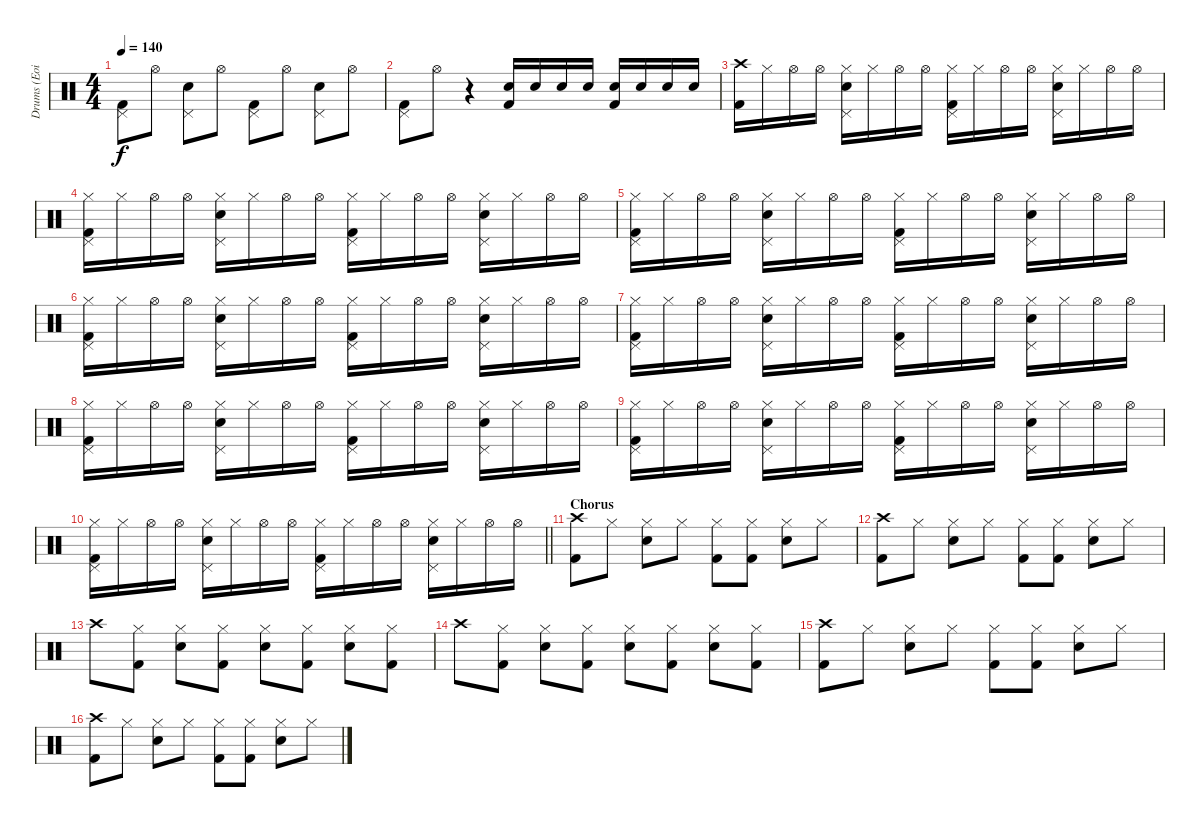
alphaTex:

\track ("Drums (Eoin)" "Drums (Eoi") {instrument percussion}
\staff {score}
\articulation defaults
\ts (4 4)
\tempo 140
\clef neutral
\ks c
("Pedal Hi-Hat (hit)" "Kick (hit) 2").8{dy f} "Hi-Hat (open)".8 ("Pedal Hi-Hat (hit)" "Electric Snare (hit)").8 "Hi-Hat (open)".8 ("Pedal Hi-Hat (hit)" "Kick (hit) 2").8 "Hi-Hat (open)".8 ("Pedal Hi-Hat (hit)" "Electric Snare (hit)").8 "Hi-Hat (open)".8 |
("Pedal Hi-Hat (hit)" "Kick (hit) 2").8 "Hi-Hat (open)".8 r.4 ("Electric Snare (hit)" "Kick (hit) 2").16 "Electric Snare (hit)".16 "Electric Snare (hit)".16 "Electric Snare (hit)".16 ("Electric Snare (hit)" "Kick (hit) 2").16 "Electric Snare (hit)".16 "Electric Snare (hit)".16 "Electric Snare (hit)".16 |
("Crash high (hit)" "Kick (hit) 2").16 "Hi-Hat (closed)".16 "Hi-Hat (open)".16 "Hi-Hat (open)".16 ("Hi-Hat (closed)" "Pedal Hi-Hat (hit)" "Electric Snare (hit)").16 "Hi-Hat (closed)".16 "Hi-Hat (open)".16 "Hi-Hat (open)".16 ("Hi-Hat (closed)" "Pedal Hi-Hat (hit)" "Kick (hit) 2").16 "Hi-Hat (closed)".16 "Hi-Hat (open)".16 "Hi-Hat (open)".16 ("Hi-Hat (closed)" "Pedal Hi-Hat (hit)" "Electric Snare (hit)").16 "Hi-Hat (closed)".16 "Hi-Hat (open)".16 "Hi-Hat (open)".16 |
("Hi-Hat (closed)" "Pedal Hi-Hat (hit)" "Kick (hit) 2").16 "Hi-Hat (closed)".16 "Hi-Hat (open)".16 "Hi-Hat (open)".16 ("Hi-Hat (closed)" "Pedal Hi-Hat (hit)" "Electric Snare (hit)").16 "Hi-Hat (closed)".16 "Hi-Hat (open)".16 "Hi-Hat (open)".16 ("Hi-Hat (closed)" "Pedal Hi-Hat (hit)" "Kick (hit) 2").16 "Hi-Hat (closed)".16 "Hi-Hat (open)".16 "Hi-Hat (open)".16 ("Hi-Hat (closed)" "Pedal Hi-Hat (hit)" "Electric Snare (hit)").16 "Hi-Hat (closed)".16 "Hi-Hat (open)".16 "Hi-Hat (open)".16 |
("Hi-Hat (closed)" "Pedal Hi-Hat (hit)" "Kick (hit) 2").16 "Hi-Hat (closed)".16 "Hi-Hat (open)".16 "Hi-Hat (open)".16 ("Hi-Hat (closed)" "Pedal Hi-Hat (hit)" "Electric Snare (hit)").16 "Hi-Hat (closed)".16 "Hi-Hat (open)".16 "Hi-Hat (open)".16 ("Hi-Hat (closed)" "Pedal Hi-Hat (hit)" "Kick (hit) 2").16 "Hi-Hat (closed)".16 "Hi-Hat (open)".16 "Hi-Hat (open)".16 ("Hi-Hat (closed)" "Pedal Hi-Hat (hit)" "Electric Snare (hit)").16 "Hi-Hat (closed)".16 "Hi-Hat (open)".16 "Hi-Hat (open)".16 |
("Hi-Hat (closed)" "Pedal Hi-Hat (hit)" "Kick (hit) 2").16 "Hi-Hat (closed)".16 "Hi-Hat (open)".16 "Hi-Hat (open)".16 ("Hi-Hat (closed)" "Pedal Hi-Hat (hit)" "Electric Snare (hit)").16 "Hi-Hat (closed)".16 "Hi-Hat (open)".16 "Hi-Hat (open)".16 ("Hi-Hat (closed)" "Pedal Hi-Hat (hit)" "Kick (hit) 2").16 "Hi-Hat (closed)".16 "Hi-Hat (open)".16 "Hi-Hat (open)".16 ("Hi-Hat (closed)" "Pedal Hi-Hat (hit)" "Electric Snare (hit)").16 "Hi-Hat (closed)".16 "Hi-Hat (open)".16 "Hi-Hat (open)".16 |
("Hi-Hat (closed)" "Pedal Hi-Hat (hit)" "Kick (hit) 2").16 "Hi-Hat (closed)".16 "Hi-Hat (open)".16 "Hi-Hat (open)".16 ("Hi-Hat (closed)" "Pedal Hi-Hat (hit)" "Electric Snare (hit)").16 "Hi-Hat (closed)".16 "Hi-Hat (open)".16 "Hi-Hat (open)".16 ("Hi-Hat (closed)" "Pedal Hi-Hat (hit)" "Kick (hit) 2").16 "Hi-Hat (closed)".16 "Hi-Hat (open)".16 "Hi-Hat (open)".16 ("Hi-Hat (closed)" "Pedal Hi-Hat (hit)" "Electric Snare (hit)").16 "Hi-Hat (closed)".16 "Hi-Hat (open)".16 "Hi-Hat (open)".16 |
("Hi-Hat (closed)" "Pedal Hi-Hat (hit)" "Kick (hit) 2").16 "Hi-Hat (closed)".16 "Hi-Hat (open)".16 "Hi-Hat (open)".16 ("Hi-Hat (closed)" "Pedal Hi-Hat (hit)" "Electric Snare (hit)").16 "Hi-Hat (closed)".16 "Hi-Hat (open)".16 "Hi-Hat (open)".16 ("Hi-Hat (closed)" "Pedal Hi-Hat (hit)" "Kick (hit) 2").16 "Hi-Hat (closed)".16 "Hi-Hat (open)".16 "Hi-Hat (open)".16 ("Hi-Hat (closed)" "Pedal Hi-Hat (hit)" "Electric Snare (hit)").16 "Hi-Hat (closed)".16 "Hi-Hat (open)".16 "Hi-Hat (open)".16 |
("Hi-Hat (closed)" "Pedal Hi-Hat (hit)" "Kick (hit) 2").16 "Hi-Hat (closed)".16 "Hi-Hat (open)".16 "Hi-Hat (open)".16 ("Hi-Hat (closed)" "Pedal Hi-Hat (hit)" "Electric Snare (hit)").16 "Hi-Hat (closed)".16 "Hi-Hat (open)".16 "Hi-Hat (open)".16 ("Hi-Hat (closed)" "Pedal Hi-Hat (hit)" "Kick (hit) 2").16 "Hi-Hat (closed)".16 "Hi-Hat (open)".16 "Hi-Hat (open)".16 ("Hi-Hat (closed)" "Pedal Hi-Hat (hit)" "Electric Snare (hit)").16 "Hi-Hat (closed)".16 "Hi-Hat (open)".16 "Hi-Hat (open)".16 |
\barLineRight lightlight
("Hi-Hat (closed)" "Pedal Hi-Hat (hit)" "Kick (hit) 2").16 "Hi-Hat (closed)".16 "Hi-Hat (open)".16 "Hi-Hat (open)".16 ("Hi-Hat (closed)" "Pedal Hi-Hat (hit)" "Electric Snare (hit)").16 "Hi-Hat (closed)".16 "Hi-Hat (open)".16 "Hi-Hat (open)".16 ("Hi-Hat (closed)" "Pedal Hi-Hat (hit)" "Kick (hit) 2").16 "Hi-Hat (closed)".16 "Hi-Hat (open)".16 "Hi-Hat (open)".16 ("Hi-Hat (closed)" "Pedal Hi-Hat (hit)" "Electric Snare (hit)").16 "Hi-Hat (closed)".16 "Hi-Hat (open)".16 "Hi-Hat (open)".16 |
\section ("" "Chorus")
("Crash high (hit)" "Kick (hit) 2").8 "Hi-Hat (closed)".8 ("Hi-Hat (closed)" "Electric Snare (hit)").8 "Hi-Hat (closed)".8 ("Hi-Hat (closed)" "Kick (hit) 2").8 ("Hi-Hat (closed)" "Kick (hit) 2").8 ("Hi-Hat (closed)" "Electric Snare (hit)").8 "Hi-Hat (closed)".8 |
("Crash high (hit)" "Kick (hit) 2").8 "Hi-Hat (closed)".8 ("Hi-Hat (closed)" "Electric Snare (hit)").8 "Hi-Hat (closed)".8 ("Hi-Hat (closed)" "Kick (hit) 2").8 ("Hi-Hat (closed)" "Kick (hit) 2").8 ("Hi-Hat (closed)" "Electric Snare (hit)").8 "Hi-Hat (closed)".8 |
"Crash high (hit)".8 ("Hi-Hat (closed)" "Kick (hit) 2").8 ("Hi-Hat (closed)" "Electric Snare (hit)").8 ("Hi-Hat (closed)" "Kick (hit) 2").8 ("Hi-Hat (closed)" "Electric Snare (hit)").8 ("Hi-Hat (closed)" "Kick (hit) 2").8 ("Hi-Hat (closed)" "Electric Snare (hit)").8 ("Hi-Hat (closed)" "Kick (hit) 2").8 |
"Crash high (hit)".8 ("Hi-Hat (closed)" "Kick (hit) 2").8 ("Hi-Hat (closed)" "Electric Snare (hit)").8 ("Hi-Hat (closed)" "Kick (hit) 2").8 ("Hi-Hat (closed)" "Electric Snare (hit)").8 ("Hi-Hat (closed)" "Kick (hit) 2").8 ("Hi-Hat (closed)" "Electric Snare (hit)").8 ("Hi-Hat (closed)" "Kick (hit) 2").8 |
("Crash high (hit)" "Kick (hit) 2").8 "Hi-Hat (closed)".8 ("Hi-Hat (closed)" "Electric Snare (hit)").8 "Hi-Hat (closed)".8 ("Hi-Hat (closed)" "Kick (hit) 2").8 ("Hi-Hat (closed)" "Kick (hit) 2").8 ("Hi-Hat (closed)" "Electric Snare (hit)").8 "Hi-Hat (closed)".8 |
("Crash high (hit)" "Kick (hit) 2").8 "Hi-Hat (closed)".8 ("Hi-Hat (closed)" "Electric Snare (hit)").8 "Hi-Hat (closed)".8 ("Hi-Hat (closed)" "Kick (hit) 2").8 ("Hi-Hat (closed)" "Kick (hit) 2").8 ("Hi-Hat (closed)" "Electric Snare (hit)").8 "Hi-Hat (closed)".8
